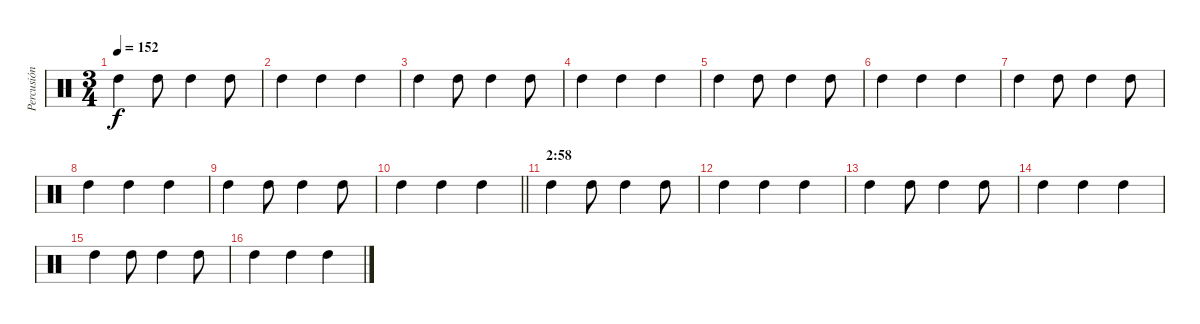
\track ("Percusión" "Percusión") {instrument percussion}
\staff {score}
\articulation defaults
\ts (3 4)
\tempo 152
\clef neutral
\ks c "High Tom (hit)".4{dy f} "High Tom (hit)".8 "High Tom (hit)".4 "High Tom (hit)".8
|
"High Tom (hit)".4 "High Tom (hit)".4 "High Tom (hit)".4 |
"High Tom (hit)".4 "High Tom (hit)".8 "High Tom (hit)".4 "High Tom (hit)".8 |
"High Tom (hit)".4 "High Tom (hit)".4 "High Tom (hit)".4 |
"High Tom (hit)".4 "High Tom (hit)".8 "High Tom (hit)".4 "High Tom (hit)".8 |
"High Tom (hit)".4 "High Tom (hit)".4 "High Tom (hit)".4 |
"High Tom (hit)".4 "High Tom (hit)".8 "High Tom (hit)".4 "High Tom (hit)".8 |
"High Tom (hit)".4 "High Tom (hit)".4 "High Tom (hit)".4 |
"High Tom (hit)".4 "High Tom (hit)".8 "High Tom (hit)".4 "High Tom (hit)".8 |
\barLineRight lightlight "High Tom (hit)".4 "High Tom (hit)".4 "High Tom (hit)".4
|
\section ("" "2:58")
"High Tom (hit)".4 "High Tom (hit)".8 "High Tom (hit)".4 "High Tom (hit)".8 |
"High Tom (hit)".4 "High Tom (hit)".4 "High Tom (hit)".4 |
"High Tom (hit)".4 "High Tom (hit)".8 "High Tom (hit)".4 "High Tom (hit)".8 |
"High Tom (hit)".4 "High Tom (hit)".4 "High Tom (hit)".4 |
"High Tom (hit)".4 "High Tom (hit)".8 "High Tom (hit)".4 "High Tom (hit)".8 |
"High Tom (hit)".4 "High Tom (hit)".4 "High Tom (hit)".4
